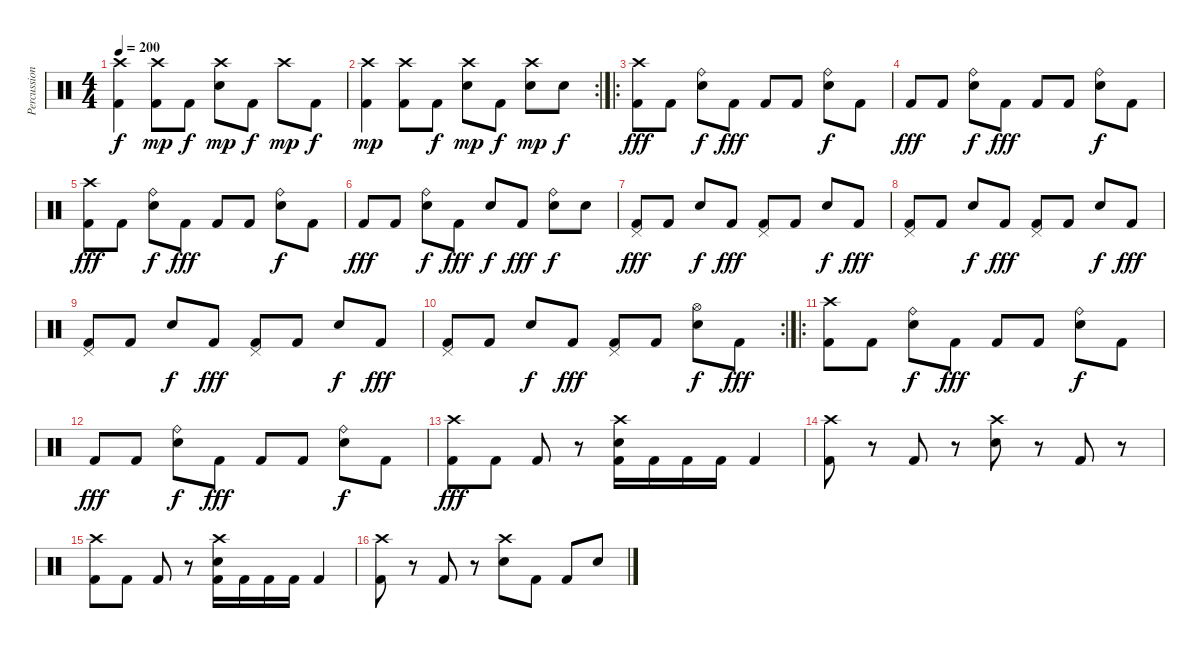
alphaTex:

\track ("Percussion" "Percussion") {instrument percussion}
\staff {score}
\articulation defaults
\ts (4 4)
\tempo 200
\clef neutral
\ks c
("Crash high (hit)" "Kick (hit) 2").4{dy f} ("Crash high (hit)" "Kick (hit) 2").8{dy mp} "Kick (hit) 2".8{dy f} ("Crash high (hit)" "Electric Snare (hit)").8{dy mp} "Kick (hit) 2".8{dy f} "Crash high (hit)".8{dy mp} "Kick (hit) 2".8{dy f} |
\rc 2
("Crash high (hit)" "Kick (hit) 2").4{dy mp} ("Crash high (hit)" "Kick (hit) 2").8 "Kick (hit) 2".8{dy f} ("Crash high (hit)" "Electric Snare (hit)").8{dy mp} "Kick (hit) 2".8{dy f} ("Crash high (hit)" "Electric Snare (hit)").8{dy mp} "Electric Snare (hit)".8{dy f} |
\ro
("Crash high (hit)" "Kick (hit) 2").8{dy fff} "Kick (hit) 2".8 ("Ride (bell)" "Electric Snare (hit)").8{dy f} "Kick (hit) 2".8{dy fff} "Kick (hit) 2".8 "Kick (hit) 2".8 ("Ride (bell)" "Electric Snare (hit)").8{dy f} "Kick (hit) 2".8 |
"Kick (hit) 2".8{dy fff} "Kick (hit) 2".8 ("Ride (bell)" "Electric Snare (hit)").8{dy f} "Kick (hit) 2".8{dy fff} "Kick (hit) 2".8 "Kick (hit) 2".8 ("Ride (bell)" "Electric Snare (hit)").8{dy f} "Kick (hit) 2".8 |
("Crash high (hit)" "Kick (hit) 2").8{dy fff} "Kick (hit) 2".8 ("Ride (bell)" "Electric Snare (hit)").8{dy f} "Kick (hit) 2".8{dy fff} "Kick (hit) 2".8 "Kick (hit) 2".8 ("Ride (bell)" "Electric Snare (hit)").8{dy f} "Kick (hit) 2".8 |
"Kick (hit) 2".8{dy fff} "Kick (hit) 2".8 ("Ride (bell)" "Electric Snare (hit)").8{dy f} "Kick (hit) 2".8{dy fff} "Electric Snare (hit)".8{dy f} "Kick (hit) 2".8{dy fff} ("Ride (bell)" "Electric Snare (hit)").8{dy f} "Electric Snare (hit)".8 |
("Pedal Hi-Hat (hit)" "Kick (hit) 2").8{dy fff} "Kick (hit) 2".8 "Electric Snare (hit)".8{dy f} "Kick (hit) 2".8{dy fff} ("Pedal Hi-Hat (hit)" "Kick (hit) 2").8 "Kick (hit) 2".8 "Electric Snare (hit)".8{dy f} "Kick (hit) 2".8{dy fff} |
("Pedal Hi-Hat (hit)" "Kick (hit) 2").8 "Kick (hit) 2".8 "Electric Snare (hit)".8{dy f} "Kick (hit) 2".8{dy fff} ("Pedal Hi-Hat (hit)" "Kick (hit) 2").8 "Kick (hit) 2".8 "Electric Snare (hit)".8{dy f} "Kick (hit) 2".8{dy fff} |
("Pedal Hi-Hat (hit)" "Kick (hit) 2").8 "Kick (hit) 2".8 "Electric Snare (hit)".8{dy f} "Kick (hit) 2".8{dy fff} ("Pedal Hi-Hat (hit)" "Kick (hit) 2").8 "Kick (hit) 2".8 "Electric Snare (hit)".8{dy f} "Kick (hit) 2".8{dy fff} |
\rc 2
("Pedal Hi-Hat (hit)" "Kick (hit) 2").8 "Kick (hit) 2".8 "Electric Snare (hit)".8{dy f} "Kick (hit) 2".8{dy fff} ("Pedal Hi-Hat (hit)" "Kick (hit) 2").8 "Kick (hit) 2".8 ("Hi-Hat (open)" "Electric Snare (hit)").8{dy f} "Kick (hit) 2".8{dy fff} |
\ro
("Crash high (hit)" "Kick (hit) 2").8 "Kick (hit) 2".8 ("Ride (bell)" "Electric Snare (hit)").8{dy f} "Kick (hit) 2".8{dy fff} "Kick (hit) 2".8 "Kick (hit) 2".8 ("Ride (bell)" "Electric Snare (hit)").8{dy f} "Kick (hit) 2".8 |
"Kick (hit) 2".8{dy fff} "Kick (hit) 2".8 ("Ride (bell)" "Electric Snare (hit)").8{dy f} "Kick (hit) 2".8{dy fff} "Kick (hit) 2".8 "Kick (hit) 2".8 ("Ride (bell)" "Electric Snare (hit)").8{dy f} "Kick (hit) 2".8 |
("Crash high (hit)" "Kick (hit) 2").8{dy fff} "Kick (hit) 2".8 "Kick (hit) 2".8 r.8 ("Crash high (hit)" "Electric Snare (hit)" "Kick (hit) 2").16 "Kick (hit) 2".16 "Kick (hit) 2".16 "Kick (hit) 2".16 "Kick (hit) 2".4 |
("Crash high (hit)" "Kick (hit) 2").8 r.8 "Kick (hit) 2".8 r.8 ("Crash high (hit)" "Electric Snare (hit)").8 r.8 "Kick (hit) 2".8 r.8 |
("Crash high (hit)" "Kick (hit) 2").8 "Kick (hit) 2".8 "Kick (hit) 2".8 r.8 ("Crash high (hit)" "Electric Snare (hit)" "Kick (hit) 2").16 "Kick (hit) 2".16 "Kick (hit) 2".16 "Kick (hit) 2".16 "Kick (hit) 2".4 |
("Crash high (hit)" "Kick (hit) 2").8 r.8 "Kick (hit) 2".8 r.8 ("Crash high (hit)" "Electric Snare (hit)").8 "Kick (hit) 2".8 "Kick (hit) 2".8 "Electric Snare (hit)".8
